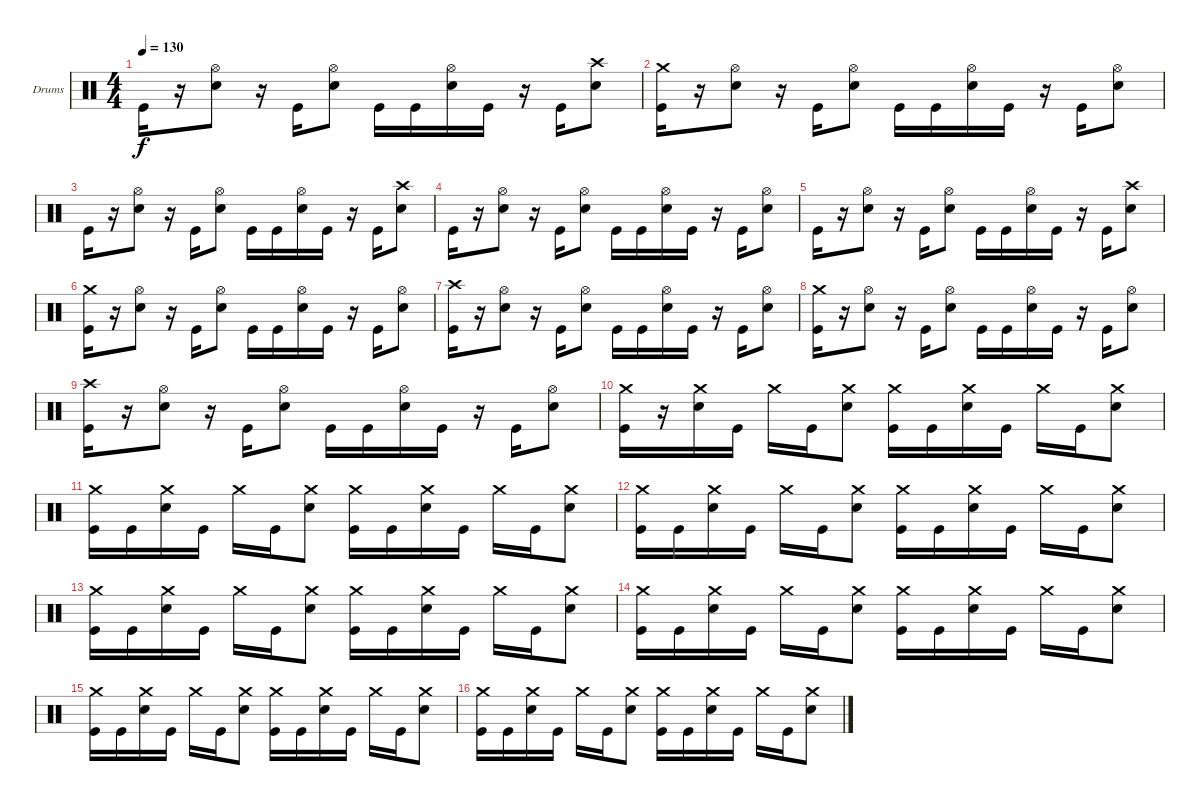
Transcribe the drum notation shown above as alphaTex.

\bracketExtendMode groupsimilarinstruments
\firstSystemTrackNameOrientation horizontal
\otherSystemsTrackNameOrientation horizontal
\track ("Drumkit" "Drums") {instrument percussion}
\staff {score}
\articulation defaults
\ts (4 4)
\tempo 130
\clef neutral
\ks c "Kick (hit)".16{dy f}
r.16 ("Snare (hit) 2" "Hi-Hat (open)").8 r.16 "Kick (hit)".16 ("Snare (hit) 2" "Hi-Hat (open)").8 "Kick (hit)".16 "Kick (hit)".16 ("Snare (hit) 2" "Hi-Hat (open)").16 "Kick (hit)".16 r.16 "Kick (hit)".16 ("Snare (hit) 2" "Crash high (hit)").8 |
("Kick (hit)" "Crash medium (hit)").16 r.16 ("Snare (hit) 2" "Hi-Hat (open)").8 r.16 "Kick (hit)".16 ("Snare (hit) 2" "Hi-Hat (open)").8 "Kick (hit)".16 "Kick (hit)".16 ("Snare (hit) 2" "Hi-Hat (open)").16 "Kick (hit)".16 r.16 "Kick (hit)".16 ("Snare (hit) 2" "Hi-Hat (open)").8 |
"Kick (hit)".16 r.16 ("Snare (hit) 2" "Hi-Hat (open)").8 r.16 "Kick (hit)".16 ("Snare (hit) 2" "Hi-Hat (open)").8 "Kick (hit)".16 "Kick (hit)".16 ("Snare (hit) 2" "Hi-Hat (open)").16 "Kick (hit)".16 r.16 "Kick (hit)".16 ("Snare (hit) 2" "Crash high (hit)").8 |
"Kick (hit)".16 r.16 ("Snare (hit) 2" "Hi-Hat (open)").8 r.16 "Kick (hit)".16 ("Snare (hit) 2" "Hi-Hat (open)").8 "Kick (hit)".16 "Kick (hit)".16 ("Snare (hit) 2" "Hi-Hat (open)").16 "Kick (hit)".16 r.16 "Kick (hit)".16 ("Snare (hit) 2" "Hi-Hat (open)").8 |
"Kick (hit)".16 r.16 ("Snare (hit) 2" "Hi-Hat (open)").8 r.16 "Kick (hit)".16 ("Snare (hit) 2" "Hi-Hat (open)").8 "Kick (hit)".16 "Kick (hit)".16 ("Snare (hit) 2" "Hi-Hat (open)").16 "Kick (hit)".16 r.16 "Kick (hit)".16 ("Snare (hit) 2" "Crash high (hit)").8 |
("Kick (hit)" "Crash medium (hit)").16 r.16 ("Snare (hit) 2" "Hi-Hat (open)").8 r.16 "Kick (hit)".16 ("Snare (hit) 2" "Hi-Hat (open)").8 "Kick (hit)".16 "Kick (hit)".16 ("Snare (hit) 2" "Hi-Hat (open)").16 "Kick (hit)".16 r.16 "Kick (hit)".16 ("Snare (hit) 2" "Hi-Hat (open)").8 |
("Kick (hit)" "Crash high (hit)").16 r.16 ("Snare (hit) 2" "Hi-Hat (open)").8 r.16 "Kick (hit)".16 ("Snare (hit) 2" "Hi-Hat (open)").8 "Kick (hit)".16 "Kick (hit)".16 ("Snare (hit) 2" "Hi-Hat (open)").16 "Kick (hit)".16 r.16 "Kick (hit)".16 ("Snare (hit) 2" "Hi-Hat (open)").8 |
("Kick (hit)" "Crash medium (hit)").16 r.16 ("Snare (hit) 2" "Hi-Hat (open)").8 r.16 "Kick (hit)".16 ("Snare (hit) 2" "Hi-Hat (open)").8 "Kick (hit)".16 "Kick (hit)".16 ("Snare (hit) 2" "Hi-Hat (open)").16 "Kick (hit)".16 r.16 "Kick (hit)".16 ("Snare (hit) 2" "Hi-Hat (open)").8 |
("Kick (hit)" "Crash high (hit)").16 r.16 ("Snare (hit) 2" "Hi-Hat (open)").8 r.16 "Kick (hit)".16 ("Snare (hit) 2" "Hi-Hat (open)").8 "Kick (hit)".16 "Kick (hit)".16 ("Snare (hit) 2" "Hi-Hat (open)").16 "Kick (hit)".16 r.16 "Kick (hit)".16 ("Snare (hit) 2" "Hi-Hat (open)").8 |
("Kick (hit)" "Crash medium (hit)").16 r.16 ("Snare (hit) 2" "Crash medium (hit)").16 "Kick (hit)".16 "Crash medium (hit)".16 "Kick (hit)".16 ("Snare (hit) 2" "Crash medium (hit)").8 ("Kick (hit)" "Crash medium (hit)").16 "Kick (hit)".16 ("Snare (hit) 2" "Crash medium (hit)").16 "Kick (hit)".16 "Crash medium (hit)".16 "Kick (hit)".16 ("Snare (hit) 2" "Crash medium (hit)").8 |
("Kick (hit)" "Crash medium (hit)").16 "Kick (hit)".16 ("Snare (hit) 2" "Crash medium (hit)").16 "Kick (hit)".16 "Crash medium (hit)".16 "Kick (hit)".16 ("Snare (hit) 2" "Crash medium (hit)").8 ("Kick (hit)" "Crash medium (hit)").16 "Kick (hit)".16 ("Snare (hit) 2" "Crash medium (hit)").16 "Kick (hit)".16 "Crash medium (hit)".16 "Kick (hit)".16 ("Snare (hit) 2" "Crash medium (hit)").8 |
("Kick (hit)" "Crash medium (hit)").16 "Kick (hit)".16 ("Snare (hit) 2" "Crash medium (hit)").16 "Kick (hit)".16 "Crash medium (hit)".16 "Kick (hit)".16 ("Snare (hit) 2" "Crash medium (hit)").8 ("Kick (hit)" "Crash medium (hit)").16 "Kick (hit)".16 ("Snare (hit) 2" "Crash medium (hit)").16 "Kick (hit)".16 "Crash medium (hit)".16 "Kick (hit)".16 ("Snare (hit) 2" "Crash medium (hit)").8 |
("Kick (hit)" "Crash medium (hit)").16 "Kick (hit)".16 ("Snare (hit) 2" "Crash medium (hit)").16 "Kick (hit)".16 "Crash medium (hit)".16 "Kick (hit)".16 ("Snare (hit) 2" "Crash medium (hit)").8 ("Kick (hit)" "Crash medium (hit)").16 "Kick (hit)".16 ("Snare (hit) 2" "Crash medium (hit)").16 "Kick (hit)".16 "Crash medium (hit)".16 "Kick (hit)".16 ("Snare (hit) 2" "Crash medium (hit)").8 |
("Kick (hit)" "Crash medium (hit)").16 "Kick (hit)".16 ("Snare (hit) 2" "Crash medium (hit)").16 "Kick (hit)".16 "Crash medium (hit)".16 "Kick (hit)".16 ("Snare (hit) 2" "Crash medium (hit)").8 ("Kick (hit)" "Crash medium (hit)").16 "Kick (hit)".16 ("Snare (hit) 2" "Crash medium (hit)").16 "Kick (hit)".16 "Crash medium (hit)".16 "Kick (hit)".16 ("Snare (hit) 2" "Crash medium (hit)").8 |
("Kick (hit)" "Crash medium (hit)").16 "Kick (hit)".16 ("Snare (hit) 2" "Crash medium (hit)").16 "Kick (hit)".16 "Crash medium (hit)".16 "Kick (hit)".16 ("Snare (hit) 2" "Crash medium (hit)").8 ("Kick (hit)" "Crash medium (hit)").16 "Kick (hit)".16 ("Snare (hit) 2" "Crash medium (hit)").16 "Kick (hit)".16 "Crash medium (hit)".16 "Kick (hit)".16 ("Snare (hit) 2" "Crash medium (hit)").8 |
("Kick (hit)" "Crash medium (hit)").16 "Kick (hit)".16 ("Snare (hit) 2" "Crash medium (hit)").16 "Kick (hit)".16 "Crash medium (hit)".16 "Kick (hit)".16 ("Snare (hit) 2" "Crash medium (hit)").8 ("Kick (hit)" "Crash medium (hit)").16 "Kick (hit)".16 ("Snare (hit) 2" "Crash medium (hit)").16 "Kick (hit)".16 "Crash medium (hit)".16 "Kick (hit)".16 ("Snare (hit) 2" "Crash medium (hit)").8
